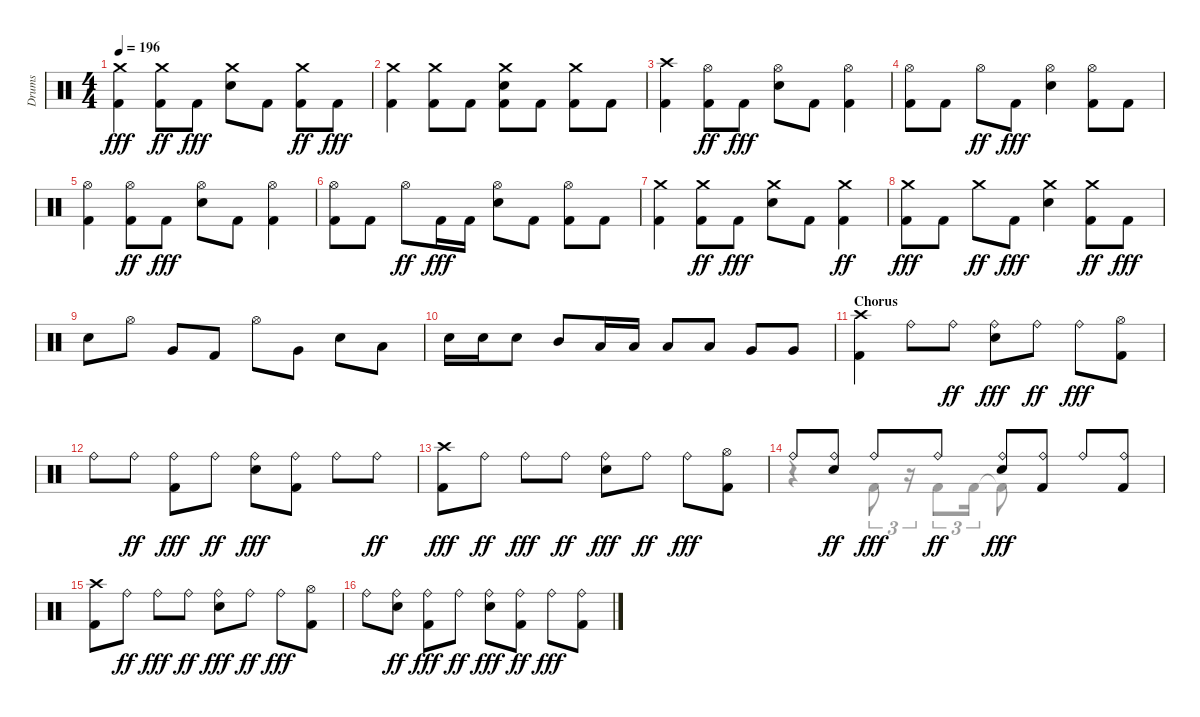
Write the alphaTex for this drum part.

\track ("Drums" "Drums") {instrument percussion}
\staff {score}
\articulation defaults
\voice
\ts (4 4)
\tempo 196
\clef neutral
\ks aminor
("Crash medium (hit)" "Kick (hit) 2").4{dy fff} ("Crash medium (hit)" "Kick (hit) 2").8{dy ff} "Kick (hit) 2".8{dy fff} ("Snare (hit) 2" "Crash medium (hit)").8 "Kick (hit) 2".8 ("Crash medium (hit)" "Kick (hit) 2").8{dy ff} "Kick (hit) 2".8{dy fff} |
("Crash medium (hit)" "Kick (hit) 2").4 ("Crash medium (hit)" "Kick (hit) 2").8 "Kick (hit) 2".8 ("Kick (hit) 2" "Snare (hit) 2" "Crash medium (hit)").8 "Kick (hit) 2".8 ("Kick (hit) 2" "Crash medium (hit)").8 "Kick (hit) 2".8 |
("Crash high (hit)" "Kick (hit) 2").4 ("Hi-Hat (open)" "Kick (hit) 2").8{dy ff} "Kick (hit) 2".8{dy fff} ("Hi-Hat (open)" "Snare (hit) 2").8 "Kick (hit) 2".8 ("Kick (hit) 2" "Hi-Hat (open)").4 |
("Hi-Hat (open)" "Kick (hit) 2").8 "Kick (hit) 2".8 "Hi-Hat (open)".8{dy ff} "Kick (hit) 2".8{dy fff} ("Hi-Hat (open)" "Snare (hit) 2").4 ("Hi-Hat (open)" "Kick (hit) 2").8 "Kick (hit) 2".8 |
("Kick (hit) 2" "Hi-Hat (open)").4 ("Kick (hit) 2" "Hi-Hat (open)").8{dy ff} "Kick (hit) 2".8{dy fff} ("Snare (hit) 2" "Hi-Hat (open)").8 "Kick (hit) 2".8 ("Hi-Hat (open)" "Kick (hit) 2").4 |
("Hi-Hat (open)" "Kick (hit) 2").8 "Kick (hit) 2".8 "Hi-Hat (open)".8{dy ff} "Kick (hit) 2".16{dy fff} "Kick (hit) 2".16 ("Snare (hit) 2" "Hi-Hat (open)").8 "Kick (hit) 2".8 ("Kick (hit) 2" "Hi-Hat (open)").8 "Kick (hit) 2".8 |
("Kick (hit) 2" "Crash medium (hit)").4 ("Crash medium (hit)" "Kick (hit) 2").8{dy ff} "Kick (hit) 2".8{dy fff} ("Crash medium (hit)" "Snare (hit) 2").8 "Kick (hit) 2".8 ("Crash medium (hit)" "Kick (hit) 2").4{dy ff} |
("Crash medium (hit)" "Kick (hit) 2").8{dy fff} "Kick (hit) 2".8 "Crash medium (hit)".8{dy ff} "Kick (hit) 2".8{dy fff} ("Snare (hit) 2" "Crash medium (hit)").4 ("Crash medium (hit)" "Kick (hit) 2").8{dy ff} "Kick (hit) 2".8{dy fff} |
"Snare (hit) 2".8 "Hi-Hat (open)".8 "Very Low Tom (hit)".8 "Kick (hit) 2".8 "Hi-Hat (open)".8 "Very Low Tom (hit)".8 "Snare (hit) 2".8 "Low Floor Tom (hit)".8 |
"Snare (hit) 2".16 "Snare (hit) 2".16 "Snare (hit) 2".8 "Mid Tom (hit)".8 "Low Tom (hit)".16 "Low Tom (hit)".16 "Low Tom (hit)".8 "Low Tom (hit)".8 "Very Low Tom (hit)".8 "Very Low Tom (hit)".8 |
\section ("" "Chorus")
("Crash high (hit)" "Kick (hit) 2").4 "Ride (bell)".8 "Ride (bell)".8{dy ff} ("Ride (bell)" "Snare (hit) 2").8{dy fff} "Ride (bell)".8{dy ff} "Ride (bell)".8{dy fff} ("Kick (hit) 2" "Hi-Hat (open)").8 |
"Ride (bell)".8 "Ride (bell)".8{dy ff} ("Ride (bell)" "Kick (hit) 2").8{dy fff} "Ride (bell)".8{dy ff} ("Ride (bell)" "Snare (hit) 2").8{dy fff} ("Kick (hit) 2" "Ride (bell)").8 "Ride (bell)".8 "Ride (bell)".8{dy ff} |
("Kick (hit) 2" "Crash high (hit)").8{dy fff} "Ride (bell)".8{dy ff} "Ride (bell)".8{dy fff} "Ride (bell)".8{dy ff} ("Ride (bell)" "Snare (hit) 2").8{dy fff} "Ride (bell)".8{dy ff} "Ride (bell)".8{dy fff} ("Hi-Hat (open)" "Kick (hit) 2").8 |
"Ride (bell)".8 ("Ride (bell)" "Snare (hit) 2").8{dy ff} "Ride (bell)".8{dy fff} "Ride (bell)".8{dy ff} ("Snare (hit) 2" "Ride (bell)").8{dy fff} ("Ride (bell)" "Kick (hit) 2").8 "Ride (bell)".8 ("Kick (hit) 2" "Ride (bell)").8 |
("Crash high (hit)" "Kick (hit) 2").8 "Ride (bell)".8{dy ff} "Ride (bell)".8{dy fff} "Ride (bell)".8{dy ff} ("Snare (hit) 2" "Ride (bell)").8{dy fff} "Ride (bell)".8{dy ff} "Ride (bell)".8{dy fff} ("Kick (hit) 2" "Hi-Hat (open)").8 |
"Ride (bell)".8 ("Snare (hit) 2" "Ride (bell)").8{dy ff} ("Ride (bell)" "Kick (hit) 2").8{dy fff} "Ride (bell)".8{dy ff} ("Snare (hit) 2" "Ride (bell)").8{dy fff} ("Ride (bell)" "Kick (hit) 2").8{dy ff} "Ride (bell)".8{dy fff} ("Ride (bell)" "Kick (hit) 2").8
\voice
\clef neutral
\ottava regular
\simile none
\ks aminor
|
|
|
|
|
|
|
|
|
|
|
|
|
r.4 "Kick (hit) 2".8{tu (3 2)} r.16{tu (3 2)} "Kick (hit) 2".8{tu (3 2)} "Kick (hit) 2".16{tu (3 2)} "Kick (hit) 2"{t}.8 |
|
